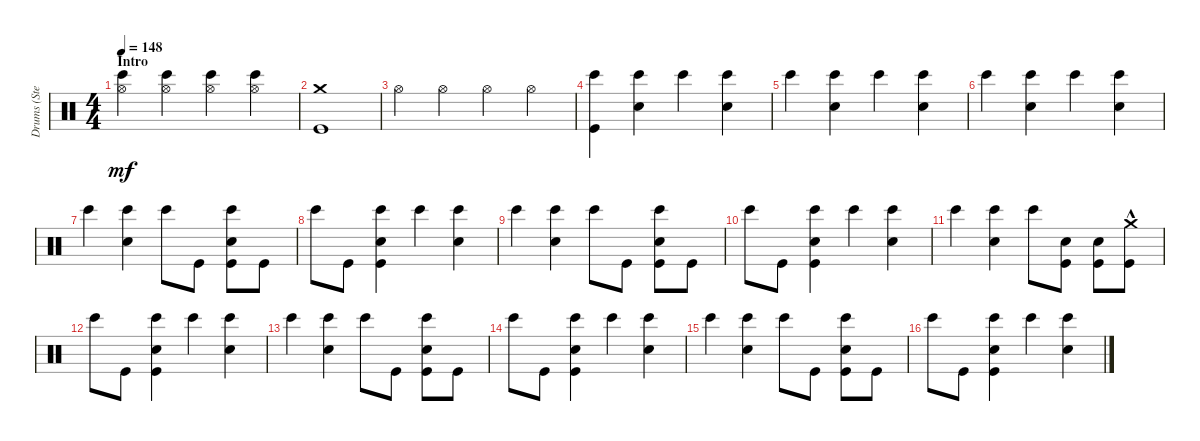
\track ("Drums (Steven)" "Drums (Ste") {instrument percussion}
\staff {score}
\articulation defaults
\ts (4 4)
\section ("" "Intro")
\tempo 148
\clef neutral
\ks c
("Hi-Hat (open)" "Bongo High (hit)").4{dy mf} ("Hi-Hat (open)" "Bongo High (hit)").4 ("Hi-Hat (open)" "Bongo High (hit)").4 ("Hi-Hat (open)" "Bongo High (hit)").4 |
("Kick (hit)" "Crash medium (hit)").1 |
"Hi-Hat (open)".4 "Hi-Hat (open)".4 "Hi-Hat (open)".4 "Hi-Hat (open)".4 |
("Kick (hit)" "Bongo High (hit)").4 ("Snare (hit) 2" "Bongo High (hit)").4 "Bongo High (hit)".4 ("Snare (hit) 2" "Bongo High (hit)").4 |
"Bongo High (hit)".4 ("Snare (hit) 2" "Bongo High (hit)").4 "Bongo High (hit)".4 ("Snare (hit) 2" "Bongo High (hit)").4 |
"Bongo High (hit)".4 ("Snare (hit) 2" "Bongo High (hit)").4 "Bongo High (hit)".4 ("Snare (hit) 2" "Bongo High (hit)").4 |
"Bongo High (hit)".4 ("Snare (hit) 2" "Bongo High (hit)").4 "Bongo High (hit)".8 "Kick (hit)".8 ("Snare (hit) 2" "Bongo High (hit)" "Kick (hit)").8 "Kick (hit)".8 |
"Bongo High (hit)".8 "Kick (hit)".8 ("Snare (hit) 2" "Bongo High (hit)" "Kick (hit)").4 "Bongo High (hit)".4 ("Snare (hit) 2" "Bongo High (hit)").4 |
"Bongo High (hit)".4 ("Snare (hit) 2" "Bongo High (hit)").4 "Bongo High (hit)".8 "Kick (hit)".8 ("Snare (hit) 2" "Bongo High (hit)" "Kick (hit)").8 "Kick (hit)".8 |
"Bongo High (hit)".8 "Kick (hit)".8 ("Snare (hit) 2" "Bongo High (hit)" "Kick (hit)").4 "Bongo High (hit)".4 ("Snare (hit) 2" "Bongo High (hit)").4 |
"Bongo High (hit)".4 ("Snare (hit) 2" "Bongo High (hit)").4 "Bongo High (hit)".8 ("Snare (hit) 2" "Kick (hit)").8 ("Snare (hit) 2" "Kick (hit)").8 ("Crash medium (hit)"{hac} "Kick (hit)").8 |
"Bongo High (hit)".8 "Kick (hit)".8 ("Snare (hit) 2" "Bongo High (hit)" "Kick (hit)").4 "Bongo High (hit)".4 ("Snare (hit) 2" "Bongo High (hit)").4 |
"Bongo High (hit)".4 ("Snare (hit) 2" "Bongo High (hit)").4 "Bongo High (hit)".8 "Kick (hit)".8 ("Snare (hit) 2" "Bongo High (hit)" "Kick (hit)").8 "Kick (hit)".8 |
"Bongo High (hit)".8 "Kick (hit)".8 ("Snare (hit) 2" "Bongo High (hit)" "Kick (hit)").4 "Bongo High (hit)".4 ("Snare (hit) 2" "Bongo High (hit)").4 |
"Bongo High (hit)".4 ("Snare (hit) 2" "Bongo High (hit)").4 "Bongo High (hit)".8 "Kick (hit)".8 ("Snare (hit) 2" "Bongo High (hit)" "Kick (hit)").8 "Kick (hit)".8 |
"Bongo High (hit)".8 "Kick (hit)".8 ("Snare (hit) 2" "Bongo High (hit)" "Kick (hit)").4 "Bongo High (hit)".4 ("Snare (hit) 2" "Bongo High (hit)").4
